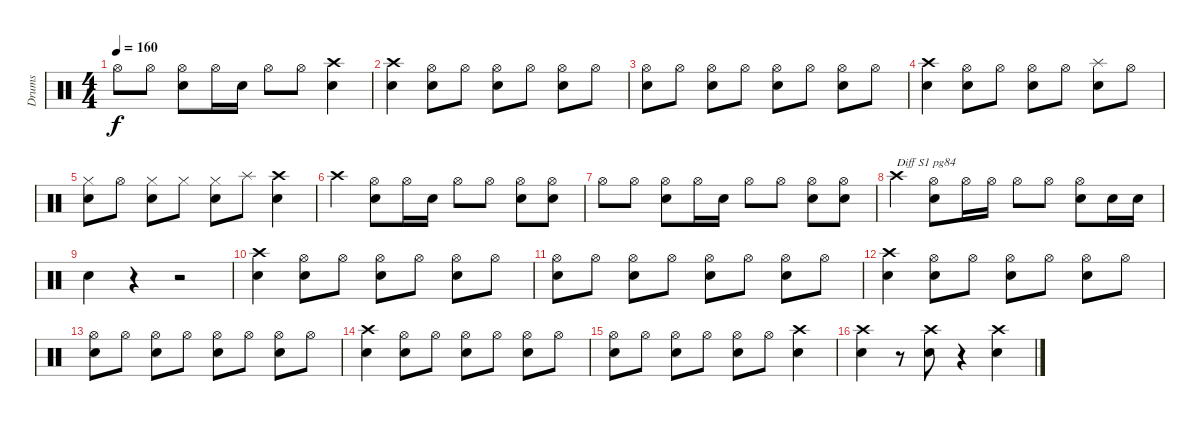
\track ("Drums" "Drums") {instrument percussion}
\staff {score}
\articulation defaults
\ts (4 4)
\tempo 160
\clef neutral
\ks c "Hi-Hat (open)".8{dy f} "Hi-Hat (open)".8
("Hi-Hat (open)" "Snare (hit) 2").8 "Hi-Hat (open)".16 "Snare (hit) 2".16 "Hi-Hat (open)".8 "Hi-Hat (open)".8 ("Crash high (hit)" "Snare (hit) 2").4 |
("Crash high (hit)" "Snare (hit) 2").4 ("Hi-Hat (open)" "Snare (hit) 2").8 "Hi-Hat (open)".8 ("Hi-Hat (open)" "Snare (hit) 2").8 "Hi-Hat (open)".8 ("Hi-Hat (open)" "Snare (hit) 2").8 "Hi-Hat (open)".8 |
("Hi-Hat (open)" "Snare (hit) 2").8 "Hi-Hat (open)".8 ("Hi-Hat (open)" "Snare (hit) 2").8 "Hi-Hat (open)".8 ("Hi-Hat (open)" "Snare (hit) 2").8 "Hi-Hat (open)".8 ("Hi-Hat (open)" "Snare (hit) 2").8 "Hi-Hat (open)".8 |
("Crash high (hit)" "Snare (hit) 2").4 ("Hi-Hat (open)" "Snare (hit) 2").8 "Hi-Hat (open)".8 ("Hi-Hat (open)" "Snare (hit) 2").8 "Hi-Hat (open)".8 ("Splash (hit)" "Snare (hit) 2").8 "Hi-Hat (open)".8 |
("Hi-Hat (closed)" "Snare (hit) 2").8 "Hi-Hat (open)".8 ("Hi-Hat (closed)" "Snare (hit) 2").8 "Hi-Hat (closed)".8 ("Hi-Hat (closed)" "Snare (hit) 2").8 "Splash (hit)".8 ("Crash high (hit)" "Snare (hit) 2").4 |
"Crash high (hit)".4 ("Hi-Hat (open)" "Snare (hit) 2").8 "Hi-Hat (open)".16 "Snare (hit) 2".16 "Hi-Hat (open)".8 "Hi-Hat (open)".8 ("Hi-Hat (open)" "Snare (hit) 2").8 ("Hi-Hat (open)" "Snare (hit) 2").8 |
"Hi-Hat (open)".8 "Hi-Hat (open)".8 ("Hi-Hat (open)" "Snare (hit) 2").8 "Hi-Hat (open)".16 "Snare (hit) 2".16 "Hi-Hat (open)".8 "Hi-Hat (open)".8 ("Hi-Hat (open)" "Snare (hit) 2").8 ("Hi-Hat (open)" "Snare (hit) 2").8 |
"Crash high (hit)".4{txt "Diff S1 pg84"} ("Hi-Hat (open)" "Snare (hit) 2").8 "Hi-Hat (open)".16 "Hi-Hat (open)".16 "Hi-Hat (open)".8 "Hi-Hat (open)".8 ("Hi-Hat (open)" "Snare (hit) 2").8 "Snare (hit) 2".16 "Snare (hit) 2".16 |
"Snare (hit) 2".4 r.4 r.2 |
("Crash high (hit)" "Snare (hit) 2").4 ("Hi-Hat (open)" "Snare (hit) 2").8 "Hi-Hat (open)".8 ("Hi-Hat (open)" "Snare (hit) 2").8 "Hi-Hat (open)".8 ("Hi-Hat (open)" "Snare (hit) 2").8 "Hi-Hat (open)".8 |
("Hi-Hat (open)" "Snare (hit) 2").8 "Hi-Hat (open)".8 ("Hi-Hat (open)" "Snare (hit) 2").8 "Hi-Hat (open)".8 ("Hi-Hat (open)" "Snare (hit) 2").8 "Hi-Hat (open)".8 ("Hi-Hat (open)" "Snare (hit) 2").8 "Hi-Hat (open)".8 |
("Crash high (hit)" "Snare (hit) 2").4 ("Hi-Hat (open)" "Snare (hit) 2").8 "Hi-Hat (open)".8 ("Hi-Hat (open)" "Snare (hit) 2").8 "Hi-Hat (open)".8 ("Hi-Hat (open)" "Snare (hit) 2").8 "Hi-Hat (open)".8 |
("Hi-Hat (open)" "Snare (hit) 2").8 "Hi-Hat (open)".8 ("Hi-Hat (open)" "Snare (hit) 2").8 "Hi-Hat (open)".8 ("Hi-Hat (open)" "Snare (hit) 2").8 "Hi-Hat (open)".8 ("Hi-Hat (open)" "Snare (hit) 2").8 "Hi-Hat (open)".8 |
("Crash high (hit)" "Snare (hit) 2").4 ("Hi-Hat (open)" "Snare (hit) 2").8 "Hi-Hat (open)".8 ("Hi-Hat (open)" "Snare (hit) 2").8 "Hi-Hat (open)".8 ("Hi-Hat (open)" "Snare (hit) 2").8 "Hi-Hat (open)".8 |
("Hi-Hat (open)" "Snare (hit) 2").8 "Hi-Hat (open)".8 ("Hi-Hat (open)" "Snare (hit) 2").8 "Hi-Hat (open)".8 ("Hi-Hat (open)" "Snare (hit) 2").8 "Hi-Hat (open)".8 ("Crash high (hit)" "Snare (hit) 2").4 |
("Crash high (hit)" "Snare (hit) 2").4 r.8 ("Crash high (hit)" "Snare (hit) 2").8 r.4 ("Crash high (hit)" "Snare (hit) 2").4
